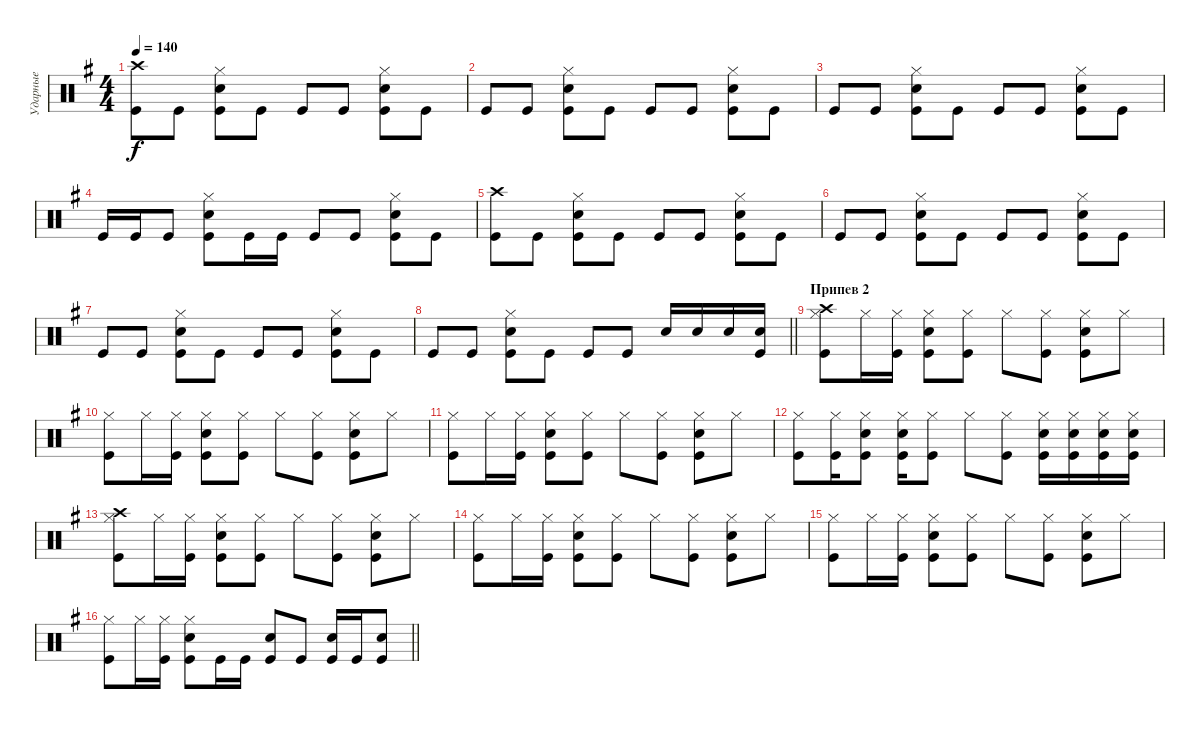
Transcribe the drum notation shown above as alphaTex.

\track ("Ударные" "Ударные") {instrument percussion}
\staff {score}
\articulation defaults
\ts (4 4)
\tempo 140
\clef neutral
\ks g
("Kick (hit)" "Crash high (hit)").8{dy f} "Kick (hit)".8 ("Kick (hit)" "Snare (hit) 2" "Hi-Hat (closed)").8 "Kick (hit)".8 "Kick (hit)".8 "Kick (hit)".8 ("Kick (hit)" "Snare (hit) 2" "Hi-Hat (closed)").8 "Kick (hit)".8 |
"Kick (hit)".8 "Kick (hit)".8 ("Kick (hit)" "Snare (hit) 2" "Hi-Hat (closed)").8 "Kick (hit)".8 "Kick (hit)".8 "Kick (hit)".8 ("Kick (hit)" "Snare (hit) 2" "Hi-Hat (closed)").8 "Kick (hit)".8 |
"Kick (hit)".8 "Kick (hit)".8 ("Kick (hit)" "Snare (hit) 2" "Hi-Hat (closed)").8 "Kick (hit)".8 "Kick (hit)".8 "Kick (hit)".8 ("Kick (hit)" "Snare (hit) 2" "Hi-Hat (closed)").8 "Kick (hit)".8 |
"Kick (hit)".16 "Kick (hit)".16 "Kick (hit)".8 ("Kick (hit)" "Snare (hit) 2" "Hi-Hat (closed)").8 "Kick (hit)".16 "Kick (hit)".16 "Kick (hit)".8 "Kick (hit)".8 ("Kick (hit)" "Snare (hit) 2" "Hi-Hat (closed)").8 "Kick (hit)".8 |
("Kick (hit)" "Crash high (hit)").8 "Kick (hit)".8 ("Kick (hit)" "Snare (hit) 2" "Hi-Hat (closed)").8 "Kick (hit)".8 "Kick (hit)".8 "Kick (hit)".8 ("Kick (hit)" "Snare (hit) 2" "Hi-Hat (closed)").8 "Kick (hit)".8 |
"Kick (hit)".8 "Kick (hit)".8 ("Kick (hit)" "Snare (hit) 2" "Hi-Hat (closed)").8 "Kick (hit)".8 "Kick (hit)".8 "Kick (hit)".8 ("Kick (hit)" "Snare (hit) 2" "Hi-Hat (closed)").8 "Kick (hit)".8 |
"Kick (hit)".8 "Kick (hit)".8 ("Kick (hit)" "Snare (hit) 2" "Hi-Hat (closed)").8 "Kick (hit)".8 "Kick (hit)".8 "Kick (hit)".8 ("Kick (hit)" "Snare (hit) 2" "Hi-Hat (closed)").8 "Kick (hit)".8 |
\barLineRight lightlight "Kick (hit)".8 "Kick (hit)".8
("Kick (hit)" "Snare (hit) 2" "Hi-Hat (closed)").8 "Kick (hit)".8 "Kick (hit)".8 "Kick (hit)".8 "Snare (hit) 2".16 "Snare (hit) 2".16 "Snare (hit) 2".16 ("Kick (hit)" "Snare (hit) 2").16 |
\section ("" "Припев 2")
("Kick (hit)" "Crash high (hit)" "Hi-Hat (closed)").8 "Hi-Hat (closed)".16 ("Kick (hit)" "Hi-Hat (closed)").16 ("Kick (hit)" "Snare (hit) 2" "Hi-Hat (closed)").8 ("Kick (hit)" "Hi-Hat (closed)").8 "Hi-Hat (closed)".8 ("Kick (hit)" "Hi-Hat (closed)").8 ("Kick (hit)" "Snare (hit) 2" "Hi-Hat (closed)").8 "Hi-Hat (closed)".8 |
("Kick (hit)" "Hi-Hat (closed)").8 "Hi-Hat (closed)".16 ("Kick (hit)" "Hi-Hat (closed)").16 ("Kick (hit)" "Snare (hit) 2" "Hi-Hat (closed)").8 ("Kick (hit)" "Hi-Hat (closed)").8 "Hi-Hat (closed)".8 ("Kick (hit)" "Hi-Hat (closed)").8 ("Kick (hit)" "Snare (hit) 2" "Hi-Hat (closed)").8 "Hi-Hat (closed)".8 |
("Kick (hit)" "Hi-Hat (closed)").8 "Hi-Hat (closed)".16 ("Kick (hit)" "Hi-Hat (closed)").16 ("Kick (hit)" "Snare (hit) 2" "Hi-Hat (closed)").8 ("Kick (hit)" "Hi-Hat (closed)").8 "Hi-Hat (closed)".8 ("Kick (hit)" "Hi-Hat (closed)").8 ("Kick (hit)" "Snare (hit) 2" "Hi-Hat (closed)").8 "Hi-Hat (closed)".8 |
("Kick (hit)" "Hi-Hat (closed)").8 ("Kick (hit)" "Hi-Hat (closed)").16 ("Kick (hit)" "Snare (hit) 2" "Hi-Hat (closed)").8 ("Kick (hit)" "Snare (hit) 2" "Hi-Hat (closed)").16 ("Kick (hit)" "Hi-Hat (closed)").8 "Hi-Hat (closed)".8 ("Kick (hit)" "Hi-Hat (closed)").8 ("Kick (hit)" "Snare (hit) 2" "Hi-Hat (closed)").16 ("Kick (hit)" "Snare (hit) 2" "Hi-Hat (closed)").16 ("Kick (hit)" "Snare (hit) 2" "Hi-Hat (closed)").16 ("Kick (hit)" "Snare (hit) 2" "Hi-Hat (closed)").16 |
("Kick (hit)" "Crash high (hit)" "Hi-Hat (closed)").8 "Hi-Hat (closed)".16 ("Kick (hit)" "Hi-Hat (closed)").16 ("Kick (hit)" "Snare (hit) 2" "Hi-Hat (closed)").8 ("Kick (hit)" "Hi-Hat (closed)").8 "Hi-Hat (closed)".8 ("Kick (hit)" "Hi-Hat (closed)").8 ("Kick (hit)" "Snare (hit) 2" "Hi-Hat (closed)").8 "Hi-Hat (closed)".8 |
("Kick (hit)" "Hi-Hat (closed)").8 "Hi-Hat (closed)".16 ("Kick (hit)" "Hi-Hat (closed)").16 ("Kick (hit)" "Snare (hit) 2" "Hi-Hat (closed)").8 ("Kick (hit)" "Hi-Hat (closed)").8 "Hi-Hat (closed)".8 ("Kick (hit)" "Hi-Hat (closed)").8 ("Kick (hit)" "Snare (hit) 2" "Hi-Hat (closed)").8 "Hi-Hat (closed)".8 |
("Kick (hit)" "Hi-Hat (closed)").8 "Hi-Hat (closed)".16 ("Kick (hit)" "Hi-Hat (closed)").16 ("Kick (hit)" "Snare (hit) 2" "Hi-Hat (closed)").8 ("Kick (hit)" "Hi-Hat (closed)").8 "Hi-Hat (closed)".8 ("Kick (hit)" "Hi-Hat (closed)").8 ("Kick (hit)" "Snare (hit) 2" "Hi-Hat (closed)").8 "Hi-Hat (closed)".8 |
\barLineRight lightlight
("Kick (hit)" "Hi-Hat (closed)").8 "Hi-Hat (closed)".16 ("Kick (hit)" "Hi-Hat (closed)").16 ("Kick (hit)" "Snare (hit) 2" "Hi-Hat (closed)").8 "Kick (hit)".16 "Kick (hit)".16 ("Kick (hit)" "Snare (hit) 2").8 "Kick (hit)".8 ("Kick (hit)" "Snare (hit) 2").16 "Kick (hit)".16 ("Kick (hit)" "Snare (hit) 2").8
